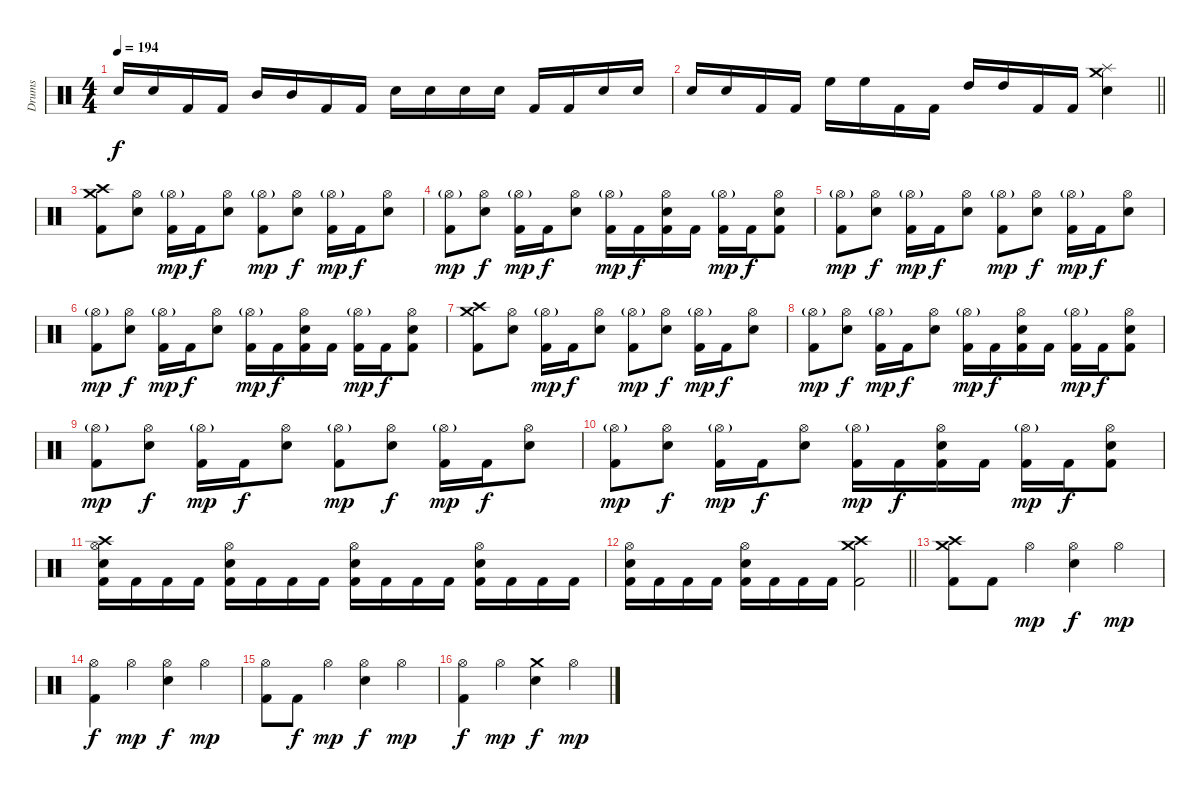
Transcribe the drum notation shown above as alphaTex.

\track ("Drums" "Drums") {instrument percussion}
\staff {score}
\articulation defaults
\ts (4 4)
\tempo 194
\clef neutral
\ks c "Electric Snare (hit)".16{dy f} "Electric Snare (hit)".16 "Kick (hit) 2".16 "Kick (hit) 2".16 "Mid Tom (hit)".16 "Mid Tom (hit)".16 "Kick (hit) 2".16 "Kick (hit) 2".16 "Electric Snare (hit)".16 "Electric Snare (hit)".16 "Electric Snare (hit)".16 "Electric Snare (hit)".16 "Kick (hit) 2".16 "Kick (hit) 2".16 "Electric Snare (hit)".16 "Electric Snare (hit)".16
|
\barLineRight lightlight "Electric Snare (hit)".16 "Electric Snare (hit)".16 "Kick (hit) 2".16 "Kick (hit) 2".16 "High Floor Tom (hit)".16 "High Floor Tom (hit)".16 "Kick (hit) 2".16 "Kick (hit) 2".16 "High Tom (hit)".16 "High Tom (hit)".16 "Kick (hit) 2".16 "Kick (hit) 2".16
("Crash medium (hit)" "Splash (hit)" "Electric Snare (hit)").4 |
("Crash high (hit)" "Crash medium (hit)" "Kick (hit) 2").8 ("Hi-Hat (open)" "Electric Snare (hit)").8 ("Hi-Hat (open)"{g} "Kick (hit) 2").16{dy mp} "Kick (hit) 2".16{dy f} ("Hi-Hat (open)" "Electric Snare (hit)").8 ("Hi-Hat (open)"{g} "Kick (hit) 2").8{dy mp} ("Hi-Hat (open)" "Electric Snare (hit)").8{dy f} ("Hi-Hat (open)"{g} "Kick (hit) 2").16{dy mp} "Kick (hit) 2".16{dy f} ("Hi-Hat (open)" "Electric Snare (hit)").8 |
("Hi-Hat (open)"{g} "Kick (hit) 2").8{dy mp} ("Hi-Hat (open)" "Electric Snare (hit)").8{dy f} ("Hi-Hat (open)"{g} "Kick (hit) 2").16{dy mp} "Kick (hit) 2".16{dy f} ("Hi-Hat (open)" "Electric Snare (hit)").8 ("Hi-Hat (open)"{g} "Kick (hit) 2").16{dy mp} "Kick (hit) 2".16{dy f} ("Hi-Hat (open)" "Electric Snare (hit)" "Kick (hit) 2").16 "Kick (hit) 2".16 ("Hi-Hat (open)"{g} "Kick (hit) 2").16{dy mp} "Kick (hit) 2".16{dy f} ("Hi-Hat (open)" "Electric Snare (hit)" "Kick (hit) 2").8 |
("Hi-Hat (open)"{g} "Kick (hit) 2").8{dy mp} ("Hi-Hat (open)" "Electric Snare (hit)").8{dy f} ("Hi-Hat (open)"{g} "Kick (hit) 2").16{dy mp} "Kick (hit) 2".16{dy f} ("Hi-Hat (open)" "Electric Snare (hit)").8 ("Hi-Hat (open)"{g} "Kick (hit) 2").8{dy mp} ("Hi-Hat (open)" "Electric Snare (hit)").8{dy f} ("Hi-Hat (open)"{g} "Kick (hit) 2").16{dy mp} "Kick (hit) 2".16{dy f} ("Hi-Hat (open)" "Electric Snare (hit)").8 |
("Hi-Hat (open)"{g} "Kick (hit) 2").8{dy mp} ("Hi-Hat (open)" "Electric Snare (hit)").8{dy f} ("Hi-Hat (open)"{g} "Kick (hit) 2").16{dy mp} "Kick (hit) 2".16{dy f} ("Hi-Hat (open)" "Electric Snare (hit)").8 ("Hi-Hat (open)"{g} "Kick (hit) 2").16{dy mp} "Kick (hit) 2".16{dy f} ("Hi-Hat (open)" "Electric Snare (hit)" "Kick (hit) 2").16 "Kick (hit) 2".16 ("Hi-Hat (open)"{g} "Kick (hit) 2").16{dy mp} "Kick (hit) 2".16{dy f} ("Hi-Hat (open)" "Electric Snare (hit)" "Kick (hit) 2").8 |
("Crash high (hit)" "Crash medium (hit)" "Kick (hit) 2").8 ("Hi-Hat (open)" "Electric Snare (hit)").8 ("Hi-Hat (open)"{g} "Kick (hit) 2").16{dy mp} "Kick (hit) 2".16{dy f} ("Hi-Hat (open)" "Electric Snare (hit)").8 ("Hi-Hat (open)"{g} "Kick (hit) 2").8{dy mp} ("Hi-Hat (open)" "Electric Snare (hit)").8{dy f} ("Hi-Hat (open)"{g} "Kick (hit) 2").16{dy mp} "Kick (hit) 2".16{dy f} ("Hi-Hat (open)" "Electric Snare (hit)").8 |
("Hi-Hat (open)"{g} "Kick (hit) 2").8{dy mp} ("Hi-Hat (open)" "Electric Snare (hit)").8{dy f} ("Hi-Hat (open)"{g} "Kick (hit) 2").16{dy mp} "Kick (hit) 2".16{dy f} ("Hi-Hat (open)" "Electric Snare (hit)").8 ("Hi-Hat (open)"{g} "Kick (hit) 2").16{dy mp} "Kick (hit) 2".16{dy f} ("Hi-Hat (open)" "Electric Snare (hit)" "Kick (hit) 2").16 "Kick (hit) 2".16 ("Hi-Hat (open)"{g} "Kick (hit) 2").16{dy mp} "Kick (hit) 2".16{dy f} ("Hi-Hat (open)" "Electric Snare (hit)" "Kick (hit) 2").8 |
("Hi-Hat (open)"{g} "Kick (hit) 2").8{dy mp} ("Hi-Hat (open)" "Electric Snare (hit)").8{dy f} ("Hi-Hat (open)"{g} "Kick (hit) 2").16{dy mp} "Kick (hit) 2".16{dy f} ("Hi-Hat (open)" "Electric Snare (hit)").8 ("Hi-Hat (open)"{g} "Kick (hit) 2").8{dy mp} ("Hi-Hat (open)" "Electric Snare (hit)").8{dy f} ("Hi-Hat (open)"{g} "Kick (hit) 2").16{dy mp} "Kick (hit) 2".16{dy f} ("Hi-Hat (open)" "Electric Snare (hit)").8 |
("Hi-Hat (open)"{g} "Kick (hit) 2").8{dy mp} ("Hi-Hat (open)" "Electric Snare (hit)").8{dy f} ("Hi-Hat (open)"{g} "Kick (hit) 2").16{dy mp} "Kick (hit) 2".16{dy f} ("Hi-Hat (open)" "Electric Snare (hit)").8 ("Hi-Hat (open)"{g} "Kick (hit) 2").16{dy mp} "Kick (hit) 2".16{dy f} ("Hi-Hat (open)" "Electric Snare (hit)" "Kick (hit) 2").16 "Kick (hit) 2".16 ("Hi-Hat (open)"{g} "Kick (hit) 2").16{dy mp} "Kick (hit) 2".16{dy f} ("Hi-Hat (open)" "Electric Snare (hit)" "Kick (hit) 2").8 |
("Crash high (hit)" "Hi-Hat (open)" "Electric Snare (hit)" "Kick (hit) 2").16 "Kick (hit) 2".16 "Kick (hit) 2".16 "Kick (hit) 2".16 ("Hi-Hat (open)" "Electric Snare (hit)" "Kick (hit) 2").16 "Kick (hit) 2".16 "Kick (hit) 2".16 "Kick (hit) 2".16 ("Hi-Hat (open)" "Electric Snare (hit)" "Kick (hit) 2").16 "Kick (hit) 2".16 "Kick (hit) 2".16 "Kick (hit) 2".16 ("Hi-Hat (open)" "Electric Snare (hit)" "Kick (hit) 2").16 "Kick (hit) 2".16 "Kick (hit) 2".16 "Kick (hit) 2".16 |
\barLineRight lightlight
("Hi-Hat (open)" "Electric Snare (hit)" "Kick (hit) 2").16 "Kick (hit) 2".16 "Kick (hit) 2".16 "Kick (hit) 2".16 ("Hi-Hat (open)" "Electric Snare (hit)" "Kick (hit) 2").16 "Kick (hit) 2".16 "Kick (hit) 2".16 "Kick (hit) 2".16 ("Crash high (hit)" "Crash medium (hit)" "Kick (hit) 2").2 |
("Crash high (hit)" "Crash medium (hit)" "Kick (hit) 2").8 "Kick (hit) 2".8 "Hi-Hat (open)".4{dy mp} ("Hi-Hat (open)" "Electric Snare (hit)").4{dy f} "Hi-Hat (open)".4{dy mp} |
("Hi-Hat (open)" "Kick (hit) 2").4{dy f} "Hi-Hat (open)".4{dy mp} ("Hi-Hat (open)" "Electric Snare (hit)").4{dy f} "Hi-Hat (open)".4{dy mp} |
("Hi-Hat (open)" "Kick (hit) 2").8 "Kick (hit) 2".8{dy f} "Hi-Hat (open)".4{dy mp} ("Hi-Hat (open)" "Electric Snare (hit)").4{dy f} "Hi-Hat (open)".4{dy mp} |
("Hi-Hat (open)" "Kick (hit) 2").4{dy f} "Hi-Hat (open)".4{dy mp} ("Crash medium (hit)" "Electric Snare (hit)").4{dy f} "Hi-Hat (open)".4{dy mp}
